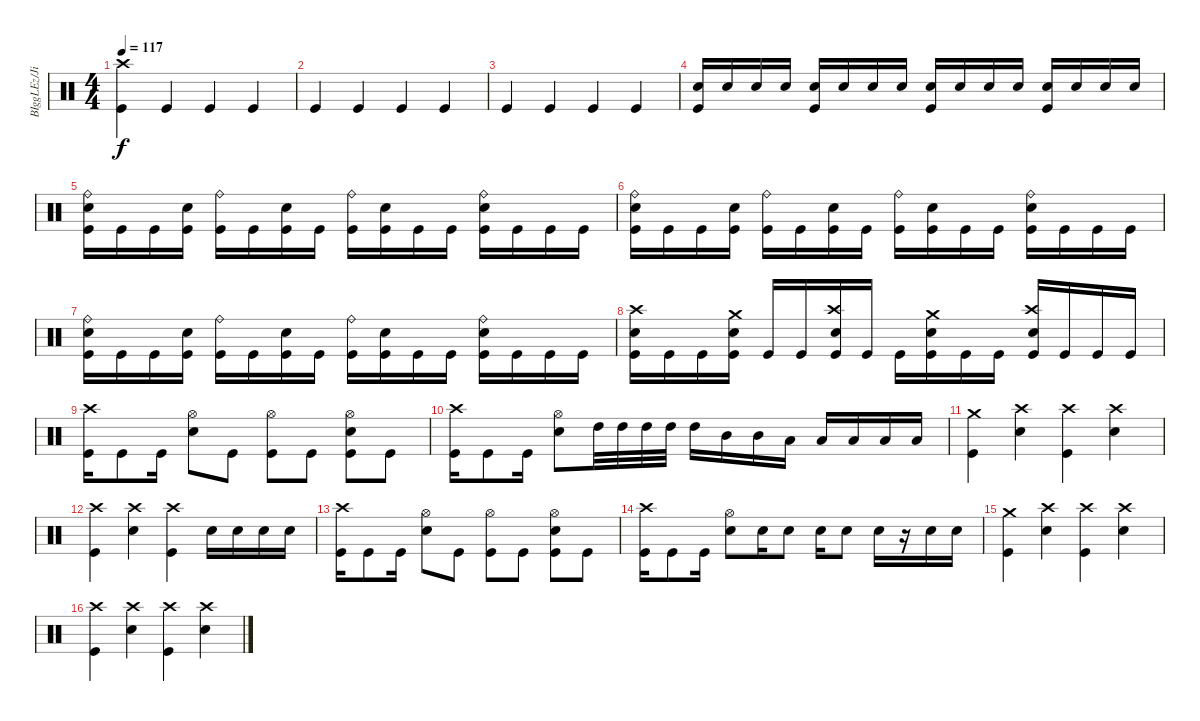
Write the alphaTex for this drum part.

\track ("BIggLEz/Jimmy" "BIggLEz/Ji") {instrument percussion}
\staff {score}
\articulation defaults
\ts (4 4)
\tempo 117
\clef neutral
\ks c
("Kick (hit)" "Crash high (hit)").4{dy f} "Kick (hit)".4 "Kick (hit)".4 "Kick (hit)".4 |
"Kick (hit)".4 "Kick (hit)".4 "Kick (hit)".4 "Kick (hit)".4 |
"Kick (hit)".4 "Kick (hit)".4 "Kick (hit)".4 "Kick (hit)".4{volume 6} |
("Kick (hit)" "Snare (hit) 2").16{volume 13} "Snare (hit) 2".16 "Snare (hit) 2".16 "Snare (hit) 2".16 ("Kick (hit)" "Snare (hit) 2").16 "Snare (hit) 2".16 "Snare (hit) 2".16 "Snare (hit) 2".16 ("Kick (hit)" "Snare (hit) 2").16 "Snare (hit) 2".16 "Snare (hit) 2".16 "Snare (hit) 2".16 ("Kick (hit)" "Snare (hit) 2").16 "Snare (hit) 2".16 "Snare (hit) 2".16 "Snare (hit) 2".16 |
("Kick (hit)" "Ride (bell)" "Snare (hit) 2").16 "Kick (hit)".16 "Kick (hit)".16 ("Kick (hit)" "Snare (hit) 2").16 ("Kick (hit)" "Ride (bell)").16 "Kick (hit)".16 ("Kick (hit)" "Snare (hit) 2").16 "Kick (hit)".16 ("Kick (hit)" "Ride (bell)").16 ("Kick (hit)" "Snare (hit) 2").16 "Kick (hit)".16 "Kick (hit)".16 ("Kick (hit)" "Ride (bell)" "Snare (hit) 2").16 "Kick (hit)".16 "Kick (hit)".16 "Kick (hit)".16 |
("Kick (hit)" "Ride (bell)" "Snare (hit) 2").16 "Kick (hit)".16 "Kick (hit)".16 ("Kick (hit)" "Snare (hit) 2").16 ("Kick (hit)" "Ride (bell)").16 "Kick (hit)".16 ("Kick (hit)" "Snare (hit) 2").16 "Kick (hit)".16 ("Kick (hit)" "Ride (bell)").16 ("Kick (hit)" "Snare (hit) 2").16 "Kick (hit)".16 "Kick (hit)".16 ("Kick (hit)" "Ride (bell)" "Snare (hit) 2").16 "Kick (hit)".16 "Kick (hit)".16 "Kick (hit)".16 |
("Kick (hit)" "Ride (bell)" "Snare (hit) 2").16 "Kick (hit)".16 "Kick (hit)".16 ("Kick (hit)" "Snare (hit) 2").16 ("Kick (hit)" "Ride (bell)").16 "Kick (hit)".16 ("Kick (hit)" "Snare (hit) 2").16 "Kick (hit)".16 ("Kick (hit)" "Ride (bell)").16 ("Kick (hit)" "Snare (hit) 2").16 "Kick (hit)".16 "Kick (hit)".16 ("Kick (hit)" "Ride (bell)" "Snare (hit) 2").16 "Kick (hit)".16 "Kick (hit)".16 "Kick (hit)".16 |
("Kick (hit)" "Crash high (hit)" "Snare (hit) 2").16 "Kick (hit)".16 "Kick (hit)".16 ("Kick (hit)" "Snare (hit) 2" "Crash medium (hit)").16 "Kick (hit)".16 "Kick (hit)".16 ("Kick (hit)" "Snare (hit) 2" "Crash high (hit)").16 "Kick (hit)".16 "Kick (hit)".16 ("Kick (hit)" "Snare (hit) 2" "Crash medium (hit)").16 "Kick (hit)".16 "Kick (hit)".16 ("Kick (hit)" "Crash high (hit)" "Snare (hit) 2").16 "Kick (hit)".16 "Kick (hit)".16 "Kick (hit)".16 |
("Kick (hit)" "Crash high (hit)").16 "Kick (hit)".8 "Kick (hit)".16 ("Snare (hit) 2" "Hi-Hat (open)").8 "Kick (hit)".8 ("Kick (hit)" "Hi-Hat (open)").8 "Kick (hit)".8 ("Kick (hit)" "Hi-Hat (open)" "Snare (hit) 2").8 "Kick (hit)".8 |
("Kick (hit)" "Crash high (hit)").16 "Kick (hit)".8 "Kick (hit)".16 ("Snare (hit) 2" "Hi-Hat (open)").8 "High Tom (hit)".32 "High Tom (hit)".32 "High Tom (hit)".32 "High Tom (hit)".32 "High Tom (hit)".16 "Mid Tom (hit)".16 "Mid Tom (hit)".16 "Low Tom (hit)".16 "Low Tom (hit)".16 "Low Tom (hit)".16 "Low Tom (hit)".16 "Low Tom (hit)".16 |
("Kick (hit)" "Crash medium (hit)").4 ("Crash high (hit)" "Snare (hit) 2").4 ("Crash high (hit)" "Kick (hit)").4 ("Crash high (hit)" "Snare (hit) 2").4 |
("Kick (hit)" "Crash high (hit)").4 ("Snare (hit) 2" "Crash high (hit)").4 ("Kick (hit)" "Crash high (hit)").4 "Snare (hit) 2".16 "Snare (hit) 2".16 "Snare (hit) 2".16 "Snare (hit) 2".16 |
("Kick (hit)" "Crash high (hit)").16 "Kick (hit)".8 "Kick (hit)".16 ("Snare (hit) 2" "Hi-Hat (open)").8 "Kick (hit)".8 ("Kick (hit)" "Hi-Hat (open)").8 "Kick (hit)".8 ("Kick (hit)" "Hi-Hat (open)" "Snare (hit) 2").8 "Kick (hit)".8 |
("Kick (hit)" "Crash high (hit)").16 "Kick (hit)".8 "Kick (hit)".16 ("Snare (hit) 2" "Hi-Hat (open)").8 "Snare (hit) 2".16 "Snare (hit) 2".8 "Snare (hit) 2".16 "Snare (hit) 2".8 "Snare (hit) 2".16 r.16 "Snare (hit) 2".16 "Snare (hit) 2".16 |
("Kick (hit)" "Crash medium (hit)").4 ("Crash high (hit)" "Snare (hit) 2").4 ("Crash high (hit)" "Kick (hit)").4 ("Crash high (hit)" "Snare (hit) 2").4 |
("Crash high (hit)" "Kick (hit)").4 ("Crash high (hit)" "Snare (hit) 2").4 ("Crash high (hit)" "Kick (hit)").4 ("Crash high (hit)" "Snare (hit) 2").4
